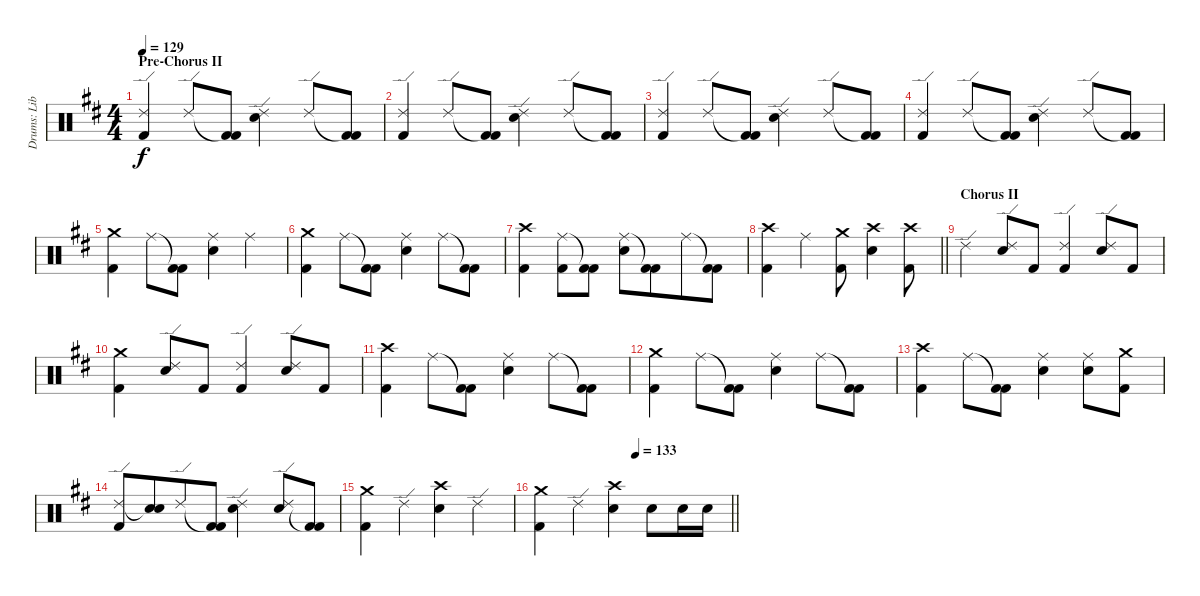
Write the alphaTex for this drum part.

\track ("Drums: Liberty" "Drums: Lib") {instrument percussion}
\staff {score}
\articulation defaults
\ts (4 4)
\section ("" "Pre-Chorus II")
\tempo 129
\clef neutral
\ks d
("Ride (edge) 2" "Kick (hit) 2").4{dy f} "Ride (edge) 2".8 ("Kick (hit) 2"{t} "Kick (hit) 2").8 ("Ride (edge) 2" "Electric Snare (hit)").4 "Ride (edge) 2".8 ("Kick (hit) 2"{t} "Kick (hit) 2").8 |
("Ride (edge) 2" "Kick (hit) 2").4 "Ride (edge) 2".8 ("Kick (hit) 2"{t} "Kick (hit) 2").8 ("Ride (edge) 2" "Electric Snare (hit)").4 "Ride (edge) 2".8 ("Kick (hit) 2"{t} "Kick (hit) 2").8 |
("Ride (edge) 2" "Kick (hit) 2").4 "Ride (edge) 2".8 ("Kick (hit) 2"{t} "Kick (hit) 2").8 ("Ride (edge) 2" "Electric Snare (hit)").4 "Ride (edge) 2".8 ("Kick (hit) 2"{t} "Kick (hit) 2").8 |
("Ride (edge) 2" "Kick (hit) 2").4 "Ride (edge) 2".8 ("Kick (hit) 2"{t} "Kick (hit) 2").8 ("Ride (edge) 2" "Electric Snare (hit)").4 "Ride (edge) 2".8 ("Kick (hit) 2"{t} "Kick (hit) 2").8 |
("Crash medium (hit)" "Kick (hit) 2").4 "Ride (middle)".8 ("Kick (hit) 2"{t} "Kick (hit) 2").8 ("Ride (middle)" "Electric Snare (hit)").4 "Ride (middle)".4 |
("Crash medium (hit)" "Kick (hit) 2").4 "Ride (middle)".8 ("Kick (hit) 2"{t} "Kick (hit) 2").8 ("Ride (middle)" "Electric Snare (hit)").4 "Ride (middle)".8 ("Kick (hit) 2"{t} "Kick (hit) 2").8 |
("Crash high (hit)" "Kick (hit) 2").4 ("Ride (middle)" "Kick (hit) 2").8 ("Kick (hit) 2"{t} "Kick (hit) 2").8 ("Ride (middle)" "Electric Snare (hit)").8 ("Kick (hit) 2"{t} "Kick (hit) 2").8{beam merge} "Ride (middle)".8 ("Kick (hit) 2"{t} "Kick (hit) 2").8 |
\barLineRight lightlight
("Crash high (hit)" "Kick (hit) 2").4 "Ride (middle)".4 ("Crash medium (hit)" "Kick (hit) 2").8 ("Crash high (hit)" "Electric Snare (hit)").4 ("Crash high (hit)" "Kick (hit) 2").8 |
\section ("" "Chorus II")
"Ride (edge) 2".4 ("Ride (edge) 2" "Electric Snare (hit)").8 "Kick (hit) 2".8 ("Ride (edge) 2" "Kick (hit) 2").4 ("Ride (edge) 2" "Electric Snare (hit)").8 "Kick (hit) 2".8 |
("Crash medium (hit)" "Kick (hit) 2").4 ("Ride (edge) 2" "Electric Snare (hit)").8 "Kick (hit) 2".8 ("Ride (edge) 2" "Kick (hit) 2").4 ("Ride (edge) 2" "Electric Snare (hit)").8 "Kick (hit) 2".8 |
("Crash high (hit)" "Kick (hit) 2").4 "Ride (middle)".8 ("Kick (hit) 2"{t} "Kick (hit) 2").8 ("Ride (middle)" "Electric Snare (hit)").4 "Ride (middle)".8 ("Kick (hit) 2"{t} "Kick (hit) 2").8 |
("Crash medium (hit)" "Kick (hit) 2").4 "Ride (middle)".8 ("Kick (hit) 2"{t} "Kick (hit) 2").8 ("Ride (middle)" "Electric Snare (hit)").4 "Ride (middle)".8 ("Kick (hit) 2"{t} "Kick (hit) 2").8 |
("Crash high (hit)" "Kick (hit) 2").4 "Ride (middle)".8 ("Kick (hit) 2"{t} "Kick (hit) 2").8 ("Ride (middle)" "Electric Snare (hit)").4 ("Ride (middle)" "Electric Snare (hit)").8 ("Crash medium (hit)" "Kick (hit) 2").8 |
("Ride (edge) 2" "Kick (hit) 2").8 ("Electric Snare (hit)"{t} "Electric Snare (hit)").8{beam merge} "Ride (edge) 2".8 ("Kick (hit) 2"{t} "Kick (hit) 2").8 ("Ride (edge) 2" "Electric Snare (hit)").4 ("Ride (edge) 2" "Electric Snare (hit)").8 ("Kick (hit) 2"{t} "Kick (hit) 2").8 |
("Crash medium (hit)" "Kick (hit) 2").4 "Ride (edge) 2".4 ("Crash high (hit)" "Electric Snare (hit)").4 "Ride (edge) 2".4 |
\tempo (133 0.5)
\barLineRight lightlight
("Crash medium (hit)" "Kick (hit) 2").4 "Ride (edge) 2".4 ("Crash high (hit)" "Electric Snare (hit)").4 "Electric Snare (hit)".8 "Electric Snare (hit)".16 "Electric Snare (hit)".16
